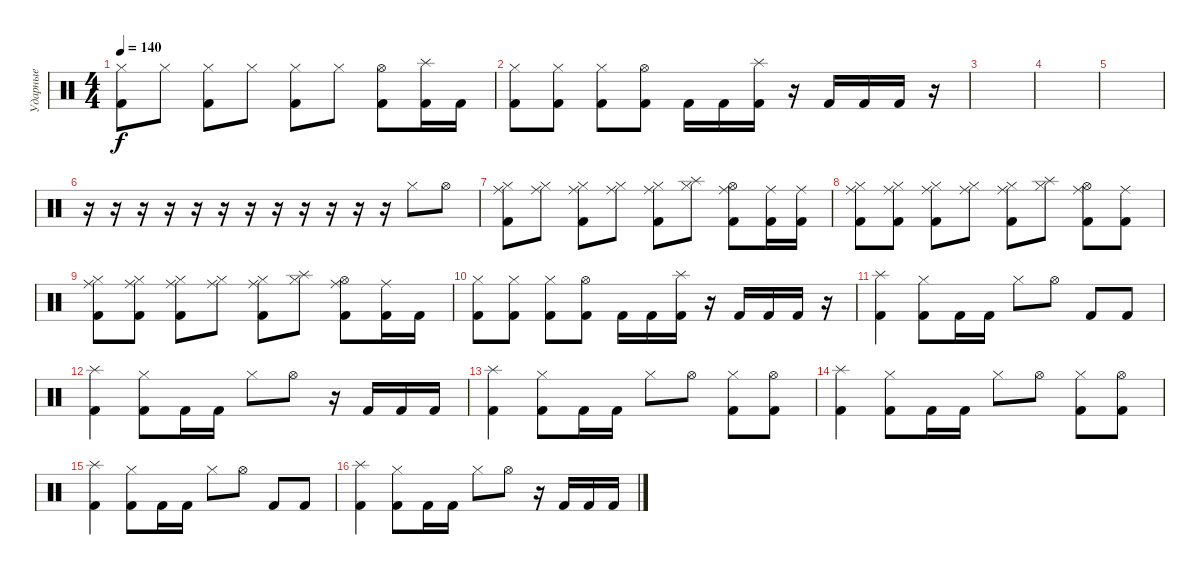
\track ("Ударные" "Ударные") {instrument percussion}
\staff {score}
\articulation defaults
\ts (4 4)
\tempo 140
\clef neutral
\ks c
("Hi-Hat (closed)" "Kick (hit) 2").8{dy f} "Hi-Hat (closed)".8 ("Hi-Hat (closed)" "Kick (hit) 2").8 "Hi-Hat (closed)".8 ("Hi-Hat (closed)" "Kick (hit) 2").8 "Hi-Hat (closed)".8 ("Hi-Hat (open)" "Kick (hit) 2").8 ("Splash (hit)" "Kick (hit) 2").16 "Kick (hit) 2".16 |
("Hi-Hat (closed)" "Kick (hit) 2").8 ("Hi-Hat (closed)" "Kick (hit) 2").8 ("Hi-Hat (closed)" "Kick (hit) 2").8 ("Hi-Hat (open)" "Kick (hit) 2").8 "Kick (hit) 2".16 "Kick (hit) 2".16 ("Splash (hit)" "Kick (hit) 2").16 r.16 "Kick (hit) 2".16 "Kick (hit) 2".16 "Kick (hit) 2".16 r.16 |
|
|
|
r.16 r.16 r.16 r.16 r.16 r.16 r.16 r.16 r.16 r.16 r.16 r.16 "Hi-Hat (closed)".8 "Hi-Hat (open)".8 |
("Ride (middle)" "Hi-Hat (closed)" "Kick (hit) 2").8 ("Ride (middle)" "Hi-Hat (closed)").8 ("Ride (middle)" "Hi-Hat (closed)" "Kick (hit) 2").8 ("Ride (middle)" "Hi-Hat (closed)").8 ("Ride (middle)" "Hi-Hat (closed)" "Kick (hit) 2").8 ("Splash (hit)" "Hi-Hat (closed)").8 ("Ride (middle)" "Hi-Hat (open)" "Kick (hit) 2").8 ("Ride (middle)" "Kick (hit) 2").16 ("Ride (middle)" "Kick (hit) 2").16 |
("Ride (middle)" "Hi-Hat (closed)" "Kick (hit) 2").8 ("Ride (middle)" "Hi-Hat (closed)" "Kick (hit) 2").8 ("Ride (middle)" "Hi-Hat (closed)" "Kick (hit) 2").8 ("Ride (middle)" "Hi-Hat (closed)").8 ("Ride (middle)" "Hi-Hat (closed)" "Kick (hit) 2").8 ("Splash (hit)" "Hi-Hat (closed)").8 ("Ride (middle)" "Hi-Hat (open)" "Kick (hit) 2").8 ("Ride (middle)" "Kick (hit) 2").8 |
("Ride (middle)" "Hi-Hat (closed)" "Kick (hit) 2").8 ("Ride (middle)" "Hi-Hat (closed)" "Kick (hit) 2").8 ("Ride (middle)" "Hi-Hat (closed)" "Kick (hit) 2").8 ("Ride (middle)" "Hi-Hat (closed)").8 ("Ride (middle)" "Hi-Hat (closed)" "Kick (hit) 2").8 ("Splash (hit)" "Hi-Hat (closed)").8 ("Ride (middle)" "Hi-Hat (open)" "Kick (hit) 2").8 ("Ride (middle)" "Kick (hit) 2").16 "Kick (hit) 2".16 |
("Hi-Hat (closed)" "Kick (hit) 2").8 ("Hi-Hat (closed)" "Kick (hit) 2").8 ("Hi-Hat (closed)" "Kick (hit) 2").8 ("Hi-Hat (open)" "Kick (hit) 2").8 "Kick (hit) 2".16 "Kick (hit) 2".16 ("Splash (hit)" "Kick (hit) 2").16 r.16 "Kick (hit) 2".16 "Kick (hit) 2".16 "Kick (hit) 2".16 r.16 |
("Splash (hit)" "Kick (hit) 2").4 ("Hi-Hat (closed)" "Kick (hit) 2").8 "Kick (hit) 2".16 "Kick (hit) 2".16 "Hi-Hat (closed)".8 "Hi-Hat (open)".8 "Kick (hit) 2".8 "Kick (hit) 2".8 |
("Splash (hit)" "Kick (hit) 2").4 ("Hi-Hat (closed)" "Kick (hit) 2").8 "Kick (hit) 2".16 "Kick (hit) 2".16 "Hi-Hat (closed)".8 "Hi-Hat (open)".8 r.16 "Kick (hit) 2".16 "Kick (hit) 2".16 "Kick (hit) 2".16 |
("Splash (hit)" "Kick (hit) 2").4 ("Hi-Hat (closed)" "Kick (hit) 2").8 "Kick (hit) 2".16 "Kick (hit) 2".16 "Hi-Hat (closed)".8 "Hi-Hat (open)".8 ("Hi-Hat (closed)" "Kick (hit) 2").8 ("Hi-Hat (open)" "Kick (hit) 2").8 |
("Splash (hit)" "Kick (hit) 2").4 ("Hi-Hat (closed)" "Kick (hit) 2").8 "Kick (hit) 2".16 "Kick (hit) 2".16 "Hi-Hat (closed)".8 "Hi-Hat (open)".8 ("Hi-Hat (closed)" "Kick (hit) 2").8 ("Hi-Hat (open)" "Kick (hit) 2").8 |
("Splash (hit)" "Kick (hit) 2").4 ("Hi-Hat (closed)" "Kick (hit) 2").8 "Kick (hit) 2".16 "Kick (hit) 2".16 "Hi-Hat (closed)".8 "Hi-Hat (open)".8 "Kick (hit) 2".8 "Kick (hit) 2".8 |
("Splash (hit)" "Kick (hit) 2").4 ("Hi-Hat (closed)" "Kick (hit) 2").8 "Kick (hit) 2".16 "Kick (hit) 2".16 "Hi-Hat (closed)".8 "Hi-Hat (open)".8 r.16 "Kick (hit) 2".16 "Kick (hit) 2".16 "Kick (hit) 2".16
